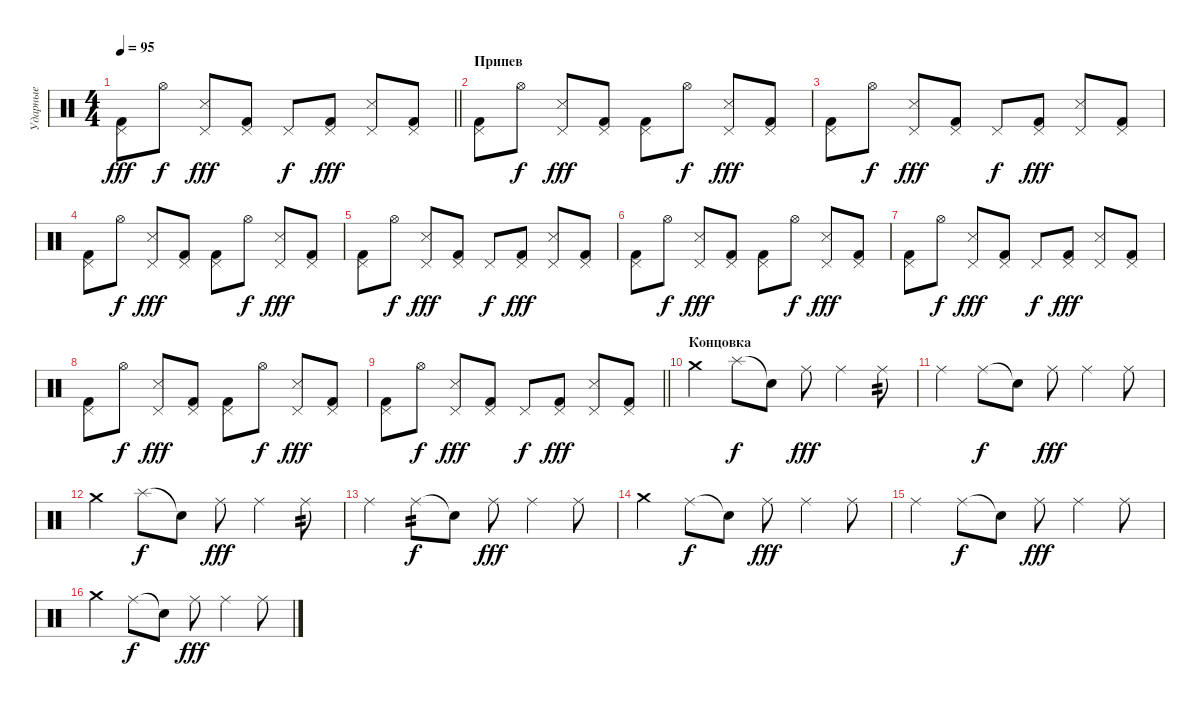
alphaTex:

\track ("Ударные" "Ударные") {instrument percussion}
\staff {score}
\articulation defaults
\ts (4 4)
\tempo 95
\clef neutral
\barLineRight lightlight
\ks c
("Pedal Hi-Hat (hit)" "Kick (hit) 2").8{dy fff} "Hi-Hat (open)".8{dy f} ("Pedal Hi-Hat (hit)" "Snare (side stick) 3").8{dy fff} ("Pedal Hi-Hat (hit)" "Kick (hit) 2").8 "Pedal Hi-Hat (hit)".8{dy f} ("Pedal Hi-Hat (hit)" "Kick (hit) 2").8{dy fff} ("Pedal Hi-Hat (hit)" "Snare (side stick) 3").8 ("Pedal Hi-Hat (hit)" "Kick (hit) 2").8 |
\section ("" "Припев")
("Pedal Hi-Hat (hit)" "Kick (hit) 2").8 "Hi-Hat (open)".8{dy f} ("Pedal Hi-Hat (hit)" "Snare (side stick) 3").8{dy fff} ("Pedal Hi-Hat (hit)" "Kick (hit) 2").8 ("Pedal Hi-Hat (hit)" "Kick (hit) 2").8 "Hi-Hat (open)".8{dy f} ("Pedal Hi-Hat (hit)" "Snare (side stick) 3").8{dy fff} ("Pedal Hi-Hat (hit)" "Kick (hit) 2").8 |
("Pedal Hi-Hat (hit)" "Kick (hit) 2").8 "Hi-Hat (open)".8{dy f} ("Pedal Hi-Hat (hit)" "Snare (side stick) 3").8{dy fff} ("Pedal Hi-Hat (hit)" "Kick (hit) 2").8 "Pedal Hi-Hat (hit)".8{dy f} ("Pedal Hi-Hat (hit)" "Kick (hit) 2").8{dy fff} ("Pedal Hi-Hat (hit)" "Snare (side stick) 3").8 ("Pedal Hi-Hat (hit)" "Kick (hit) 2").8 |
("Pedal Hi-Hat (hit)" "Kick (hit) 2").8 "Hi-Hat (open)".8{dy f} ("Pedal Hi-Hat (hit)" "Snare (side stick) 3").8{dy fff} ("Pedal Hi-Hat (hit)" "Kick (hit) 2").8 ("Pedal Hi-Hat (hit)" "Kick (hit) 2").8 "Hi-Hat (open)".8{dy f} ("Pedal Hi-Hat (hit)" "Snare (side stick) 3").8{dy fff} ("Pedal Hi-Hat (hit)" "Kick (hit) 2").8 |
("Pedal Hi-Hat (hit)" "Kick (hit) 2").8 "Hi-Hat (open)".8{dy f} ("Pedal Hi-Hat (hit)" "Snare (side stick) 3").8{dy fff} ("Pedal Hi-Hat (hit)" "Kick (hit) 2").8 "Pedal Hi-Hat (hit)".8{dy f} ("Pedal Hi-Hat (hit)" "Kick (hit) 2").8{dy fff} ("Pedal Hi-Hat (hit)" "Snare (side stick) 3").8 ("Pedal Hi-Hat (hit)" "Kick (hit) 2").8 |
("Pedal Hi-Hat (hit)" "Kick (hit) 2").8 "Hi-Hat (open)".8{dy f} ("Pedal Hi-Hat (hit)" "Snare (side stick) 3").8{dy fff} ("Pedal Hi-Hat (hit)" "Kick (hit) 2").8 ("Pedal Hi-Hat (hit)" "Kick (hit) 2").8 "Hi-Hat (open)".8{dy f} ("Pedal Hi-Hat (hit)" "Snare (side stick) 3").8{dy fff} ("Pedal Hi-Hat (hit)" "Kick (hit) 2").8 |
("Pedal Hi-Hat (hit)" "Kick (hit) 2").8 "Hi-Hat (open)".8{dy f} ("Pedal Hi-Hat (hit)" "Snare (side stick) 3").8{dy fff} ("Pedal Hi-Hat (hit)" "Kick (hit) 2").8 "Pedal Hi-Hat (hit)".8{dy f} ("Pedal Hi-Hat (hit)" "Kick (hit) 2").8{dy fff} ("Pedal Hi-Hat (hit)" "Snare (side stick) 3").8 ("Pedal Hi-Hat (hit)" "Kick (hit) 2").8 |
("Pedal Hi-Hat (hit)" "Kick (hit) 2").8 "Hi-Hat (open)".8{dy f} ("Pedal Hi-Hat (hit)" "Snare (side stick) 3").8{dy fff} ("Pedal Hi-Hat (hit)" "Kick (hit) 2").8 ("Pedal Hi-Hat (hit)" "Kick (hit) 2").8 "Hi-Hat (open)".8{dy f} ("Pedal Hi-Hat (hit)" "Snare (side stick) 3").8{dy fff} ("Pedal Hi-Hat (hit)" "Kick (hit) 2").8 |
\barLineRight lightlight
("Pedal Hi-Hat (hit)" "Kick (hit) 2").8 "Hi-Hat (open)".8{dy f} ("Pedal Hi-Hat (hit)" "Snare (side stick) 3").8{dy fff} ("Pedal Hi-Hat (hit)" "Kick (hit) 2").8 "Pedal Hi-Hat (hit)".8{dy f} ("Pedal Hi-Hat (hit)" "Kick (hit) 2").8{dy fff} ("Pedal Hi-Hat (hit)" "Snare (side stick) 3").8 ("Pedal Hi-Hat (hit)" "Kick (hit) 2").8 |
\section ("" "Концовка")
"Crash medium (hit)".4 "Splash (hit)".8{dy f} "Snare (hit)"{t}.8 "Ride (middle)".8{dy fff} "Ride (middle)".4 "Ride (middle)".8{tp 2} |
"Ride (middle)".4 "Ride (middle)".8{dy f} "Snare (hit)"{t}.8 "Ride (middle)".8{dy fff} "Ride (middle)".4 "Ride (middle)".8 |
"Crash medium (hit)".4 "Splash (hit)".8{dy f} "Snare (hit)"{t}.8 "Ride (middle)".8{dy fff} "Ride (middle)".4 "Ride (middle)".8{tp 2} |
"Ride (middle)".4 "Ride (middle)".8{tp 2 dy f} "Snare (hit)"{t}.8 "Ride (middle)".8{dy fff} "Ride (middle)".4 "Ride (middle)".8 |
"Crash medium (hit)".4 "Ride (middle)".8{dy f} "Snare (hit)"{t}.8 "Ride (middle)".8{dy fff} "Ride (middle)".4 "Ride (middle)".8 |
"Ride (middle)".4 "Ride (middle)".8{dy f} "Snare (hit)"{t}.8 "Ride (middle)".8{dy fff} "Ride (middle)".4 "Ride (middle)".8 |
"Crash medium (hit)".4 "Ride (middle)".8{dy f} "Snare (hit)"{t}.8 "Ride (middle)".8{dy fff} "Ride (middle)".4 "Ride (middle)".8
